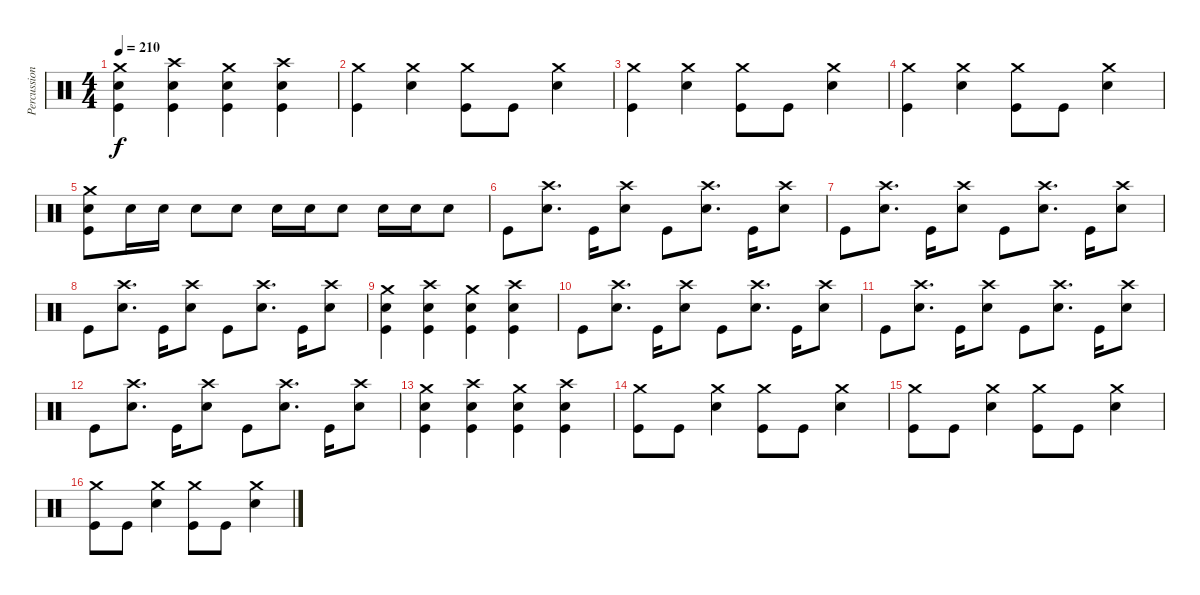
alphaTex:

\track ("Percussions" "Percussion") {instrument percussion}
\staff {score}
\articulation defaults
\ts (4 4)
\tempo 210
\clef neutral
\ks c
("Crash medium (hit)" "Snare (hit) 2" "Kick (hit)").4{dy f} ("Crash high (hit)" "Snare (hit) 2" "Kick (hit)").4 ("Crash medium (hit)" "Snare (hit) 2" "Kick (hit)").4 ("Crash high (hit)" "Snare (hit) 2" "Kick (hit)").4 |
("Crash medium (hit)" "Kick (hit)").4 ("Crash medium (hit)" "Snare (hit) 2").4 ("Crash medium (hit)" "Kick (hit)").8 "Kick (hit)".8 ("Crash medium (hit)" "Snare (hit) 2").4 |
("Crash medium (hit)" "Kick (hit)").4 ("Crash medium (hit)" "Snare (hit) 2").4 ("Crash medium (hit)" "Kick (hit)").8 "Kick (hit)".8 ("Crash medium (hit)" "Snare (hit) 2").4 |
("Crash medium (hit)" "Kick (hit)").4 ("Crash medium (hit)" "Snare (hit) 2").4 ("Crash medium (hit)" "Kick (hit)").8 "Kick (hit)".8 ("Crash medium (hit)" "Snare (hit) 2").4 |
("Crash medium (hit)" "Snare (hit) 2" "Kick (hit)").8 "Snare (hit) 2".16 "Snare (hit) 2".16 "Snare (hit) 2".8 "Snare (hit) 2".8 "Snare (hit) 2".16 "Snare (hit) 2".16 "Snare (hit) 2".8 "Snare (hit) 2".16 "Snare (hit) 2".16 "Snare (hit) 2".8 |
"Kick (hit)".8 ("Crash high (hit)" "Snare (hit) 2").8{d} "Kick (hit)".16 ("Crash high (hit)" "Snare (hit) 2").8 "Kick (hit)".8 ("Crash high (hit)" "Snare (hit) 2").8{d} "Kick (hit)".16 ("Crash high (hit)" "Snare (hit) 2").8 |
"Kick (hit)".8 ("Crash high (hit)" "Snare (hit) 2").8{d} "Kick (hit)".16 ("Crash high (hit)" "Snare (hit) 2").8 "Kick (hit)".8 ("Crash high (hit)" "Snare (hit) 2").8{d} "Kick (hit)".16 ("Crash high (hit)" "Snare (hit) 2").8 |
"Kick (hit)".8 ("Crash high (hit)" "Snare (hit) 2").8{d} "Kick (hit)".16 ("Crash high (hit)" "Snare (hit) 2").8 "Kick (hit)".8 ("Crash high (hit)" "Snare (hit) 2").8{d} "Kick (hit)".16 ("Crash high (hit)" "Snare (hit) 2").8 |
("Crash medium (hit)" "Snare (hit) 2" "Kick (hit)").4 ("Crash high (hit)" "Snare (hit) 2" "Kick (hit)").4 ("Crash medium (hit)" "Snare (hit) 2" "Kick (hit)").4 ("Crash high (hit)" "Snare (hit) 2" "Kick (hit)").4 |
"Kick (hit)".8 ("Crash high (hit)" "Snare (hit) 2").8{d} "Kick (hit)".16 ("Crash high (hit)" "Snare (hit) 2").8 "Kick (hit)".8 ("Crash high (hit)" "Snare (hit) 2").8{d} "Kick (hit)".16 ("Crash high (hit)" "Snare (hit) 2").8 |
"Kick (hit)".8 ("Crash high (hit)" "Snare (hit) 2").8{d} "Kick (hit)".16 ("Crash high (hit)" "Snare (hit) 2").8 "Kick (hit)".8 ("Crash high (hit)" "Snare (hit) 2").8{d} "Kick (hit)".16 ("Crash high (hit)" "Snare (hit) 2").8 |
"Kick (hit)".8 ("Crash high (hit)" "Snare (hit) 2").8{d} "Kick (hit)".16 ("Crash high (hit)" "Snare (hit) 2").8 "Kick (hit)".8 ("Crash high (hit)" "Snare (hit) 2").8{d} "Kick (hit)".16 ("Crash high (hit)" "Snare (hit) 2").8 |
("Crash medium (hit)" "Snare (hit) 2" "Kick (hit)").4 ("Crash high (hit)" "Snare (hit) 2" "Kick (hit)").4 ("Crash medium (hit)" "Snare (hit) 2" "Kick (hit)").4 ("Crash high (hit)" "Snare (hit) 2" "Kick (hit)").4 |
("Crash medium (hit)" "Kick (hit)").8 "Kick (hit)".8 ("Crash medium (hit)" "Snare (hit) 2").4 ("Crash medium (hit)" "Kick (hit)").8 "Kick (hit)".8 ("Crash medium (hit)" "Snare (hit) 2").4 |
("Crash medium (hit)" "Kick (hit)").8 "Kick (hit)".8 ("Crash medium (hit)" "Snare (hit) 2").4 ("Crash medium (hit)" "Kick (hit)").8 "Kick (hit)".8 ("Crash medium (hit)" "Snare (hit) 2").4 |
("Crash medium (hit)" "Kick (hit)").8 "Kick (hit)".8 ("Crash medium (hit)" "Snare (hit) 2").4 ("Crash medium (hit)" "Kick (hit)").8 "Kick (hit)".8 ("Crash medium (hit)" "Snare (hit) 2").4
